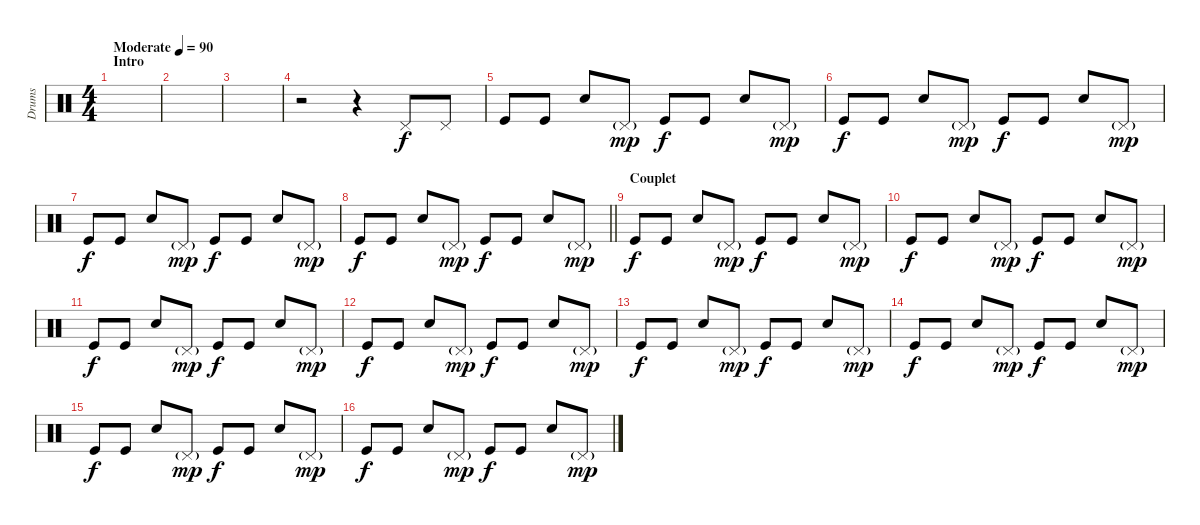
\track ("Drums" "Drums") {instrument percussion}
\staff {score}
\articulation defaults
\ts (4 4)
\section ("" "Intro")
\tempo (90 "Moderate")
\clef neutral
\ks c
|
|
|
r.2 r.4 "Pedal Hi-Hat (hit)".8 "Pedal Hi-Hat (hit)".8 |
"Kick (hit)".8 "Kick (hit)".8 "Snare (hit) 2".8 "Pedal Hi-Hat (hit)"{g}.8{dy mp} "Kick (hit)".8{dy f} "Kick (hit)".8 "Snare (hit) 2".8 "Pedal Hi-Hat (hit)"{g}.8{dy mp} |
"Kick (hit)".8{dy f} "Kick (hit)".8 "Snare (hit) 2".8 "Pedal Hi-Hat (hit)"{g}.8{dy mp} "Kick (hit)".8{dy f} "Kick (hit)".8 "Snare (hit) 2".8 "Pedal Hi-Hat (hit)"{g}.8{dy mp} |
"Kick (hit)".8{dy f} "Kick (hit)".8 "Snare (hit) 2".8 "Pedal Hi-Hat (hit)"{g}.8{dy mp} "Kick (hit)".8{dy f} "Kick (hit)".8 "Snare (hit) 2".8 "Pedal Hi-Hat (hit)"{g}.8{dy mp} |
\barLineRight lightlight "Kick (hit)".8{dy f} "Kick (hit)".8 "Snare (hit) 2".8 "Pedal Hi-Hat (hit)"{g}.8{dy mp} "Kick (hit)".8{dy f} "Kick (hit)".8 "Snare (hit) 2".8 "Pedal Hi-Hat (hit)"{g}.8{dy mp}
|
\section ("" "Couplet")
"Kick (hit)".8{dy f} "Kick (hit)".8 "Snare (hit) 2".8 "Pedal Hi-Hat (hit)"{g}.8{dy mp} "Kick (hit)".8{dy f} "Kick (hit)".8 "Snare (hit) 2".8 "Pedal Hi-Hat (hit)"{g}.8{dy mp} |
"Kick (hit)".8{dy f} "Kick (hit)".8 "Snare (hit) 2".8 "Pedal Hi-Hat (hit)"{g}.8{dy mp} "Kick (hit)".8{dy f} "Kick (hit)".8 "Snare (hit) 2".8 "Pedal Hi-Hat (hit)"{g}.8{dy mp} |
"Kick (hit)".8{dy f} "Kick (hit)".8 "Snare (hit) 2".8 "Pedal Hi-Hat (hit)"{g}.8{dy mp} "Kick (hit)".8{dy f} "Kick (hit)".8 "Snare (hit) 2".8 "Pedal Hi-Hat (hit)"{g}.8{dy mp} |
"Kick (hit)".8{dy f} "Kick (hit)".8 "Snare (hit) 2".8 "Pedal Hi-Hat (hit)"{g}.8{dy mp} "Kick (hit)".8{dy f} "Kick (hit)".8 "Snare (hit) 2".8 "Pedal Hi-Hat (hit)"{g}.8{dy mp} |
"Kick (hit)".8{dy f} "Kick (hit)".8 "Snare (hit) 2".8 "Pedal Hi-Hat (hit)"{g}.8{dy mp} "Kick (hit)".8{dy f} "Kick (hit)".8 "Snare (hit) 2".8 "Pedal Hi-Hat (hit)"{g}.8{dy mp} |
"Kick (hit)".8{dy f} "Kick (hit)".8 "Snare (hit) 2".8 "Pedal Hi-Hat (hit)"{g}.8{dy mp} "Kick (hit)".8{dy f} "Kick (hit)".8 "Snare (hit) 2".8 "Pedal Hi-Hat (hit)"{g}.8{dy mp} |
"Kick (hit)".8{dy f} "Kick (hit)".8 "Snare (hit) 2".8 "Pedal Hi-Hat (hit)"{g}.8{dy mp} "Kick (hit)".8{dy f} "Kick (hit)".8 "Snare (hit) 2".8 "Pedal Hi-Hat (hit)"{g}.8{dy mp} |
"Kick (hit)".8{dy f} "Kick (hit)".8 "Snare (hit) 2".8 "Pedal Hi-Hat (hit)"{g}.8{dy mp} "Kick (hit)".8{dy f} "Kick (hit)".8 "Snare (hit) 2".8 "Pedal Hi-Hat (hit)"{g}.8{dy mp}
